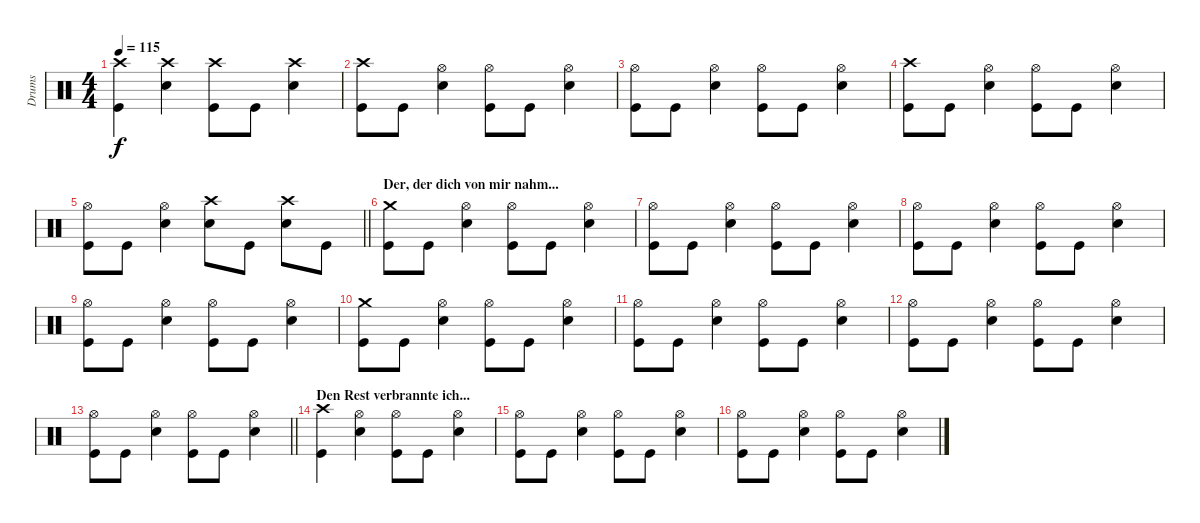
\track ("Drums" "Drums") {instrument percussion}
\staff {score}
\articulation defaults
\ts (4 4)
\tempo 115
\clef neutral
\ks c
("Crash high (hit)" "Kick (hit)").4{dy f} ("Crash high (hit)" "Snare (hit) 2").4 ("Crash high (hit)" "Kick (hit)").8 "Kick (hit)".8 ("Crash high (hit)" "Snare (hit) 2").4 |
("Crash high (hit)" "Kick (hit)").8 "Kick (hit)".8 ("Hi-Hat (open)" "Snare (hit) 2").4 ("Hi-Hat (open)" "Kick (hit)").8 "Kick (hit)".8 ("Hi-Hat (open)" "Snare (hit) 2").4 |
("Hi-Hat (open)" "Kick (hit)").8 "Kick (hit)".8 ("Hi-Hat (open)" "Snare (hit) 2").4 ("Hi-Hat (open)" "Kick (hit)").8 "Kick (hit)".8 ("Hi-Hat (open)" "Snare (hit) 2").4 |
("Crash high (hit)" "Kick (hit)").8 "Kick (hit)".8 ("Hi-Hat (open)" "Snare (hit) 2").4 ("Hi-Hat (open)" "Kick (hit)").8 "Kick (hit)".8 ("Hi-Hat (open)" "Snare (hit) 2").4 |
\barLineRight lightlight
("Hi-Hat (open)" "Kick (hit)").8 "Kick (hit)".8 ("Hi-Hat (open)" "Snare (hit) 2").4 ("Crash high (hit)" "Snare (hit) 2").8 "Kick (hit)".8 ("Crash high (hit)" "Snare (hit) 2").8 "Kick (hit)".8 |
\section ("" "Der, der dich von mir nahm...")
("Crash medium (hit)" "Kick (hit)").8 "Kick (hit)".8 ("Hi-Hat (open)" "Snare (hit) 2").4 ("Hi-Hat (open)" "Kick (hit)").8 "Kick (hit)".8 ("Hi-Hat (open)" "Snare (hit) 2").4 |
("Hi-Hat (open)" "Kick (hit)").8 "Kick (hit)".8 ("Hi-Hat (open)" "Snare (hit) 2").4 ("Hi-Hat (open)" "Kick (hit)").8 "Kick (hit)".8 ("Hi-Hat (open)" "Snare (hit) 2").4 |
("Hi-Hat (open)" "Kick (hit)").8 "Kick (hit)".8 ("Hi-Hat (open)" "Snare (hit) 2").4 ("Hi-Hat (open)" "Kick (hit)").8 "Kick (hit)".8 ("Hi-Hat (open)" "Snare (hit) 2").4 |
("Hi-Hat (open)" "Kick (hit)").8 "Kick (hit)".8 ("Hi-Hat (open)" "Snare (hit) 2").4 ("Hi-Hat (open)" "Kick (hit)").8 "Kick (hit)".8 ("Hi-Hat (open)" "Snare (hit) 2").4 |
("Crash medium (hit)" "Kick (hit)").8 "Kick (hit)".8 ("Hi-Hat (open)" "Snare (hit) 2").4 ("Hi-Hat (open)" "Kick (hit)").8 "Kick (hit)".8 ("Hi-Hat (open)" "Snare (hit) 2").4 |
("Hi-Hat (open)" "Kick (hit)").8 "Kick (hit)".8 ("Hi-Hat (open)" "Snare (hit) 2").4 ("Hi-Hat (open)" "Kick (hit)").8 "Kick (hit)".8 ("Hi-Hat (open)" "Snare (hit) 2").4 |
("Hi-Hat (open)" "Kick (hit)").8 "Kick (hit)".8 ("Hi-Hat (open)" "Snare (hit) 2").4 ("Hi-Hat (open)" "Kick (hit)").8 "Kick (hit)".8 ("Hi-Hat (open)" "Snare (hit) 2").4 |
\barLineRight lightlight
("Hi-Hat (open)" "Kick (hit)").8 "Kick (hit)".8 ("Hi-Hat (open)" "Snare (hit) 2").4 ("Hi-Hat (open)" "Kick (hit)").8 "Kick (hit)".8 ("Hi-Hat (open)" "Snare (hit) 2").4 |
\section ("" "Den Rest verbrannte ich...")
("Crash high (hit)" "Kick (hit)").4 ("Hi-Hat (open)" "Snare (hit) 2").4 ("Hi-Hat (open)" "Kick (hit)").8 "Kick (hit)".8 ("Hi-Hat (open)" "Snare (hit) 2").4 |
("Hi-Hat (open)" "Kick (hit)").8 "Kick (hit)".8 ("Hi-Hat (open)" "Snare (hit) 2").4 ("Hi-Hat (open)" "Kick (hit)").8 "Kick (hit)".8 ("Hi-Hat (open)" "Snare (hit) 2").4 |
("Hi-Hat (open)" "Kick (hit)").8 "Kick (hit)".8 ("Hi-Hat (open)" "Snare (hit) 2").4 ("Hi-Hat (open)" "Kick (hit)").8 "Kick (hit)".8 ("Hi-Hat (open)" "Snare (hit) 2").4
